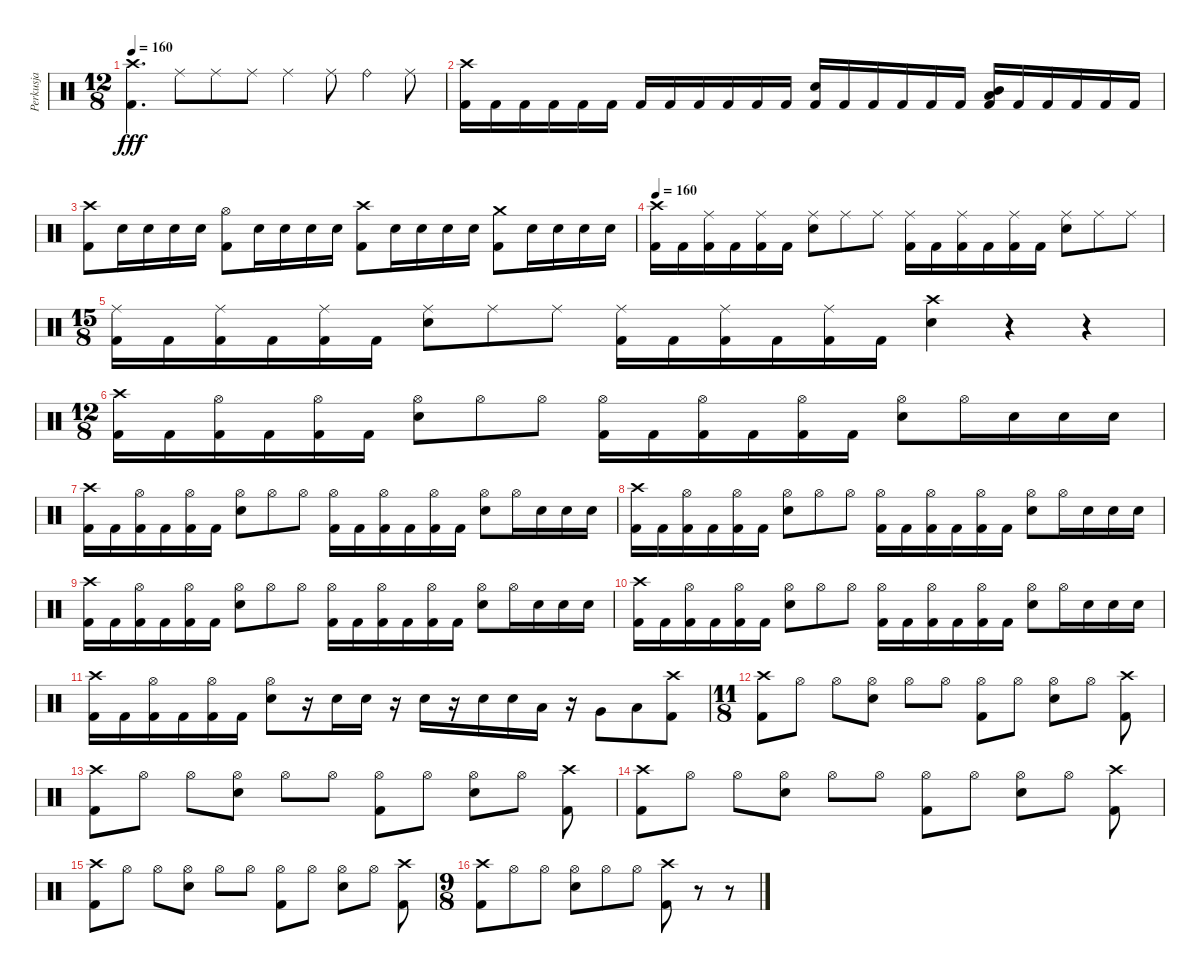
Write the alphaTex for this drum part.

\track ("Perkusja" "Perkusja") {instrument percussion bank 10}
\staff {score}
\articulation defaults
\ts (12 8)
\tempo 160
\clef neutral
\ks c
("Crash high (hit)" "Kick (hit) 2").4{d dy fff} "Ride (middle)".8 "Ride (middle)".8 "Ride (middle)".8 "Ride (middle)".4 "Ride (middle)".8 "Ride (bell)".4 "Ride (middle)".8 |
("Crash high (hit)" "Kick (hit) 2").16 "Kick (hit) 2".16 "Kick (hit) 2".16 "Kick (hit) 2".16 "Kick (hit) 2".16 "Kick (hit) 2".16 "Kick (hit) 2".16 "Kick (hit) 2".16 "Kick (hit) 2".16 "Kick (hit) 2".16 "Kick (hit) 2".16 "Kick (hit) 2".16 ("Snare (hit) 2" "Kick (hit) 2").16 "Kick (hit) 2".16 "Kick (hit) 2".16 "Kick (hit) 2".16 "Kick (hit) 2".16 "Kick (hit) 2".16 ("Low Tom (hit)" "Mid Tom (hit)" "Kick (hit) 2").16 "Kick (hit) 2".16 "Kick (hit) 2".16 "Kick (hit) 2".16 "Kick (hit) 2".16 "Kick (hit) 2".16 |
("Crash high (hit)" "Kick (hit) 2").8 "Snare (hit) 2".16 "Snare (hit) 2".16 "Snare (hit) 2".16 "Snare (hit) 2".16 ("Hi-Hat (open)" "Kick (hit) 2").8 "Snare (hit) 2".16 "Snare (hit) 2".16 "Snare (hit) 2".16 "Snare (hit) 2".16 ("Crash high (hit)" "Kick (hit) 2").8 "Snare (hit) 2".16 "Snare (hit) 2".16 "Snare (hit) 2".16 "Snare (hit) 2".16 ("Crash medium (hit)" "Kick (hit) 2").8 "Snare (hit) 2".16 "Snare (hit) 2".16 "Snare (hit) 2".16 "Snare (hit) 2".16 |
\tempo 160
("Crash high (hit)" "Kick (hit) 2").16 "Kick (hit) 2".16 ("Ride (middle)" "Kick (hit) 2").16 "Kick (hit) 2".16 ("Ride (middle)" "Kick (hit) 2").16 "Kick (hit) 2".16 ("Ride (middle)" "Snare (hit) 2").8 "Ride (middle)".8 "Ride (middle)".8 ("Ride (middle)" "Kick (hit) 2").16 "Kick (hit) 2".16 ("Ride (middle)" "Kick (hit) 2").16 "Kick (hit) 2".16 ("Ride (middle)" "Kick (hit) 2").16 "Kick (hit) 2".16 ("Ride (middle)" "Snare (hit) 2").8 "Ride (middle)".8 "Ride (middle)".8 |
\ts (15 8)
("Ride (middle)" "Kick (hit) 2").16 "Kick (hit) 2".16 ("Ride (middle)" "Kick (hit) 2").16 "Kick (hit) 2".16 ("Ride (middle)" "Kick (hit) 2").16 "Kick (hit) 2".16 ("Ride (middle)" "Snare (hit) 2").8 "Ride (middle)".8 "Ride (middle)".8 ("Ride (middle)" "Kick (hit) 2").16 "Kick (hit) 2".16 ("Ride (middle)" "Kick (hit) 2").16 "Kick (hit) 2".16 ("Ride (middle)" "Kick (hit) 2").16 "Kick (hit) 2".16 ("Crash high (hit)" "Snare (hit) 2").4 r.4 r.4 |
\ts (12 8)
("Crash high (hit)" "Kick (hit) 2").16 "Kick (hit) 2".16 ("Hi-Hat (open)" "Kick (hit) 2").16 "Kick (hit) 2".16 ("Hi-Hat (open)" "Kick (hit) 2").16 "Kick (hit) 2".16 ("Hi-Hat (open)" "Snare (hit) 2").8 "Hi-Hat (open)".8 "Hi-Hat (open)".8 ("Hi-Hat (open)" "Kick (hit) 2").16 "Kick (hit) 2".16 ("Hi-Hat (open)" "Kick (hit) 2").16 "Kick (hit) 2".16 ("Hi-Hat (open)" "Kick (hit) 2").16 "Kick (hit) 2".16 ("Hi-Hat (open)" "Snare (hit) 2").8 "Hi-Hat (open)".16 "Snare (hit) 2".16 "Snare (hit) 2".16 "Snare (hit) 2".16 |
("Crash high (hit)" "Kick (hit) 2").16 "Kick (hit) 2".16 ("Hi-Hat (open)" "Kick (hit) 2").16 "Kick (hit) 2".16 ("Hi-Hat (open)" "Kick (hit) 2").16 "Kick (hit) 2".16 ("Hi-Hat (open)" "Snare (hit) 2").8 "Hi-Hat (open)".8 "Hi-Hat (open)".8 ("Hi-Hat (open)" "Kick (hit) 2").16 "Kick (hit) 2".16 ("Hi-Hat (open)" "Kick (hit) 2").16 "Kick (hit) 2".16 ("Hi-Hat (open)" "Kick (hit) 2").16 "Kick (hit) 2".16 ("Hi-Hat (open)" "Snare (hit) 2").8 "Hi-Hat (open)".16 "Snare (hit) 2".16 "Snare (hit) 2".16 "Snare (hit) 2".16 |
("Crash high (hit)" "Kick (hit) 2").16 "Kick (hit) 2".16 ("Hi-Hat (open)" "Kick (hit) 2").16 "Kick (hit) 2".16 ("Hi-Hat (open)" "Kick (hit) 2").16 "Kick (hit) 2".16 ("Hi-Hat (open)" "Snare (hit) 2").8 "Hi-Hat (open)".8 "Hi-Hat (open)".8 ("Hi-Hat (open)" "Kick (hit) 2").16 "Kick (hit) 2".16 ("Hi-Hat (open)" "Kick (hit) 2").16 "Kick (hit) 2".16 ("Hi-Hat (open)" "Kick (hit) 2").16 "Kick (hit) 2".16 ("Hi-Hat (open)" "Snare (hit) 2").8 "Hi-Hat (open)".16 "Snare (hit) 2".16 "Snare (hit) 2".16 "Snare (hit) 2".16 |
("Crash high (hit)" "Kick (hit) 2").16 "Kick (hit) 2".16 ("Hi-Hat (open)" "Kick (hit) 2").16 "Kick (hit) 2".16 ("Hi-Hat (open)" "Kick (hit) 2").16 "Kick (hit) 2".16 ("Hi-Hat (open)" "Snare (hit) 2").8 "Hi-Hat (open)".8 "Hi-Hat (open)".8 ("Hi-Hat (open)" "Kick (hit) 2").16 "Kick (hit) 2".16 ("Hi-Hat (open)" "Kick (hit) 2").16 "Kick (hit) 2".16 ("Hi-Hat (open)" "Kick (hit) 2").16 "Kick (hit) 2".16 ("Hi-Hat (open)" "Snare (hit) 2").8 "Hi-Hat (open)".16 "Snare (hit) 2".16 "Snare (hit) 2".16 "Snare (hit) 2".16 |
("Crash high (hit)" "Kick (hit) 2").16 "Kick (hit) 2".16 ("Hi-Hat (open)" "Kick (hit) 2").16 "Kick (hit) 2".16 ("Hi-Hat (open)" "Kick (hit) 2").16 "Kick (hit) 2".16 ("Hi-Hat (open)" "Snare (hit) 2").8 "Hi-Hat (open)".8 "Hi-Hat (open)".8 ("Hi-Hat (open)" "Kick (hit) 2").16 "Kick (hit) 2".16 ("Hi-Hat (open)" "Kick (hit) 2").16 "Kick (hit) 2".16 ("Hi-Hat (open)" "Kick (hit) 2").16 "Kick (hit) 2".16 ("Hi-Hat (open)" "Snare (hit) 2").8 "Hi-Hat (open)".16 "Snare (hit) 2".16 "Snare (hit) 2".16 "Snare (hit) 2".16 |
("Crash high (hit)" "Kick (hit) 2").16 "Kick (hit) 2".16 ("Hi-Hat (open)" "Kick (hit) 2").16 "Kick (hit) 2".16 ("Hi-Hat (open)" "Kick (hit) 2").16 "Kick (hit) 2".16 ("Hi-Hat (open)" "Snare (hit) 2").8 r.16 "Snare (hit) 2".16 "Snare (hit) 2".16 r.16 "Snare (hit) 2".16 r.16 "Snare (hit) 2".16 "Snare (hit) 2".16 "Low Tom (hit)".16 r.16 "Very Low Tom (hit)".8 "Low Floor Tom (hit)".8 ("Crash high (hit)" "Kick (hit) 2").8 |
\ts (11 8)
("Crash high (hit)" "Kick (hit) 2").8 "Hi-Hat (open)".8 "Hi-Hat (open)".8 ("Hi-Hat (open)" "Snare (hit) 2").8 "Hi-Hat (open)".8 "Hi-Hat (open)".8 ("Hi-Hat (open)" "Kick (hit) 2").8 "Hi-Hat (open)".8 ("Hi-Hat (open)" "Snare (hit) 2").8 "Hi-Hat (open)".8 ("Crash high (hit)" "Kick (hit) 2").8 |
("Crash high (hit)" "Kick (hit) 2").8 "Hi-Hat (open)".8 "Hi-Hat (open)".8 ("Hi-Hat (open)" "Snare (hit) 2").8 "Hi-Hat (open)".8 "Hi-Hat (open)".8 ("Hi-Hat (open)" "Kick (hit) 2").8 "Hi-Hat (open)".8 ("Hi-Hat (open)" "Snare (hit) 2").8 "Hi-Hat (open)".8 ("Crash high (hit)" "Kick (hit) 2").8 |
("Crash high (hit)" "Kick (hit) 2").8 "Hi-Hat (open)".8 "Hi-Hat (open)".8 ("Hi-Hat (open)" "Snare (hit) 2").8 "Hi-Hat (open)".8 "Hi-Hat (open)".8 ("Hi-Hat (open)" "Kick (hit) 2").8 "Hi-Hat (open)".8 ("Hi-Hat (open)" "Snare (hit) 2").8 "Hi-Hat (open)".8 ("Crash high (hit)" "Kick (hit) 2").8 |
("Crash high (hit)" "Kick (hit) 2").8 "Hi-Hat (open)".8 "Hi-Hat (open)".8 ("Hi-Hat (open)" "Snare (hit) 2").8 "Hi-Hat (open)".8 "Hi-Hat (open)".8 ("Hi-Hat (open)" "Kick (hit) 2").8 "Hi-Hat (open)".8 ("Hi-Hat (open)" "Snare (hit) 2").8 "Hi-Hat (open)".8 ("Crash high (hit)" "Kick (hit) 2").8 |
\ts (9 8)
("Crash high (hit)" "Kick (hit) 2").8 "Hi-Hat (open)".8 "Hi-Hat (open)".8 ("Hi-Hat (open)" "Snare (hit) 2").8 "Hi-Hat (open)".8 "Hi-Hat (open)".8 ("Kick (hit) 2" "Crash high (hit)").8 r.8 r.8
